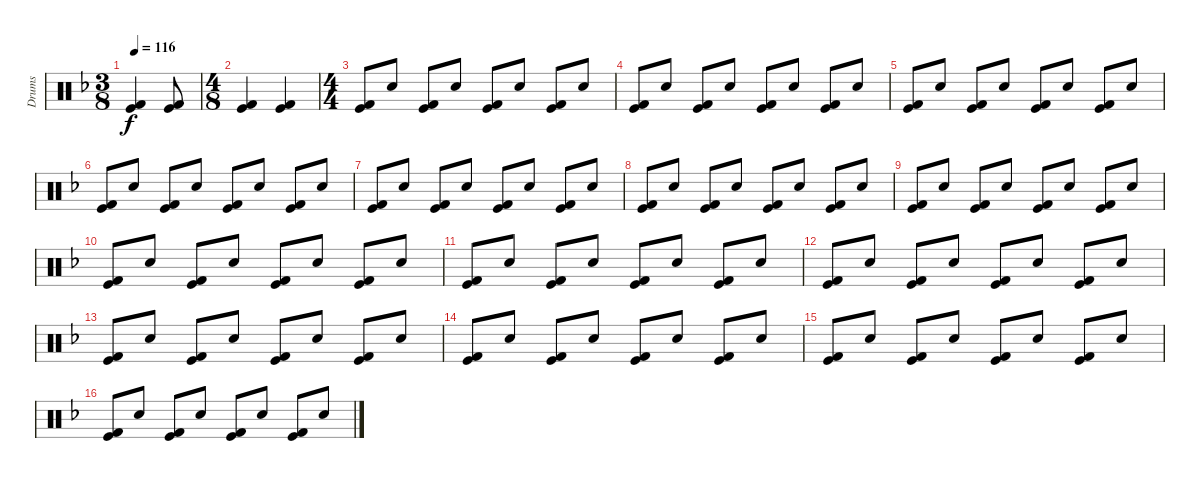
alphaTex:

\track ("Drums" "Drums") {instrument percussion}
\staff {score}
\articulation defaults
\ts (3 8)
\tempo 116
\clef neutral
\ks f
("Kick (hit)" "Kick (hit) 2").4{dy f} ("Kick (hit)" "Kick (hit) 2").8 |
\ts (4 8)
("Kick (hit)" "Kick (hit) 2").4 ("Kick (hit)" "Kick (hit) 2").4 |
\ts (4 4)
("Kick (hit)" "Kick (hit) 2").8 "Snare (hit) 2".8 ("Kick (hit)" "Kick (hit) 2").8 "Snare (hit) 2".8 ("Kick (hit)" "Kick (hit) 2").8 "Snare (hit) 2".8 ("Kick (hit)" "Kick (hit) 2").8 "Snare (hit) 2".8 |
("Kick (hit)" "Kick (hit) 2").8 "Snare (hit) 2".8 ("Kick (hit)" "Kick (hit) 2").8 "Snare (hit) 2".8 ("Kick (hit)" "Kick (hit) 2").8 "Snare (hit) 2".8 ("Kick (hit)" "Kick (hit) 2").8 "Snare (hit) 2".8 |
("Kick (hit)" "Kick (hit) 2").8 "Snare (hit) 2".8 ("Kick (hit)" "Kick (hit) 2").8 "Snare (hit) 2".8 ("Kick (hit)" "Kick (hit) 2").8 "Snare (hit) 2".8 ("Kick (hit)" "Kick (hit) 2").8 "Snare (hit) 2".8 |
("Kick (hit)" "Kick (hit) 2").8 "Snare (hit) 2".8 ("Kick (hit)" "Kick (hit) 2").8 "Snare (hit) 2".8 ("Kick (hit)" "Kick (hit) 2").8 "Snare (hit) 2".8 ("Kick (hit)" "Kick (hit) 2").8 "Snare (hit) 2".8 |
("Kick (hit)" "Kick (hit) 2").8 "Snare (hit) 2".8 ("Kick (hit)" "Kick (hit) 2").8 "Snare (hit) 2".8 ("Kick (hit)" "Kick (hit) 2").8 "Snare (hit) 2".8 ("Kick (hit)" "Kick (hit) 2").8 "Snare (hit) 2".8 |
("Kick (hit)" "Kick (hit) 2").8 "Snare (hit) 2".8 ("Kick (hit)" "Kick (hit) 2").8 "Snare (hit) 2".8 ("Kick (hit)" "Kick (hit) 2").8 "Snare (hit) 2".8 ("Kick (hit)" "Kick (hit) 2").8 "Snare (hit) 2".8 |
("Kick (hit)" "Kick (hit) 2").8 "Snare (hit) 2".8 ("Kick (hit)" "Kick (hit) 2").8 "Snare (hit) 2".8 ("Kick (hit)" "Kick (hit) 2").8 "Snare (hit) 2".8 ("Kick (hit)" "Kick (hit) 2").8 "Snare (hit) 2".8 |
("Kick (hit)" "Kick (hit) 2").8 "Snare (hit) 2".8 ("Kick (hit)" "Kick (hit) 2").8 "Snare (hit) 2".8 ("Kick (hit)" "Kick (hit) 2").8 "Snare (hit) 2".8 ("Kick (hit)" "Kick (hit) 2").8 "Snare (hit) 2".8 |
("Kick (hit)" "Kick (hit) 2").8 "Snare (hit) 2".8 ("Kick (hit)" "Kick (hit) 2").8 "Snare (hit) 2".8 ("Kick (hit)" "Kick (hit) 2").8 "Snare (hit) 2".8 ("Kick (hit)" "Kick (hit) 2").8 "Snare (hit) 2".8 |
("Kick (hit)" "Kick (hit) 2").8 "Snare (hit) 2".8 ("Kick (hit)" "Kick (hit) 2").8 "Snare (hit) 2".8 ("Kick (hit)" "Kick (hit) 2").8 "Snare (hit) 2".8 ("Kick (hit)" "Kick (hit) 2").8 "Snare (hit) 2".8 |
("Kick (hit)" "Kick (hit) 2").8 "Snare (hit) 2".8 ("Kick (hit)" "Kick (hit) 2").8 "Snare (hit) 2".8 ("Kick (hit)" "Kick (hit) 2").8 "Snare (hit) 2".8 ("Kick (hit)" "Kick (hit) 2").8 "Snare (hit) 2".8 |
("Kick (hit)" "Kick (hit) 2").8 "Snare (hit) 2".8 ("Kick (hit)" "Kick (hit) 2").8 "Snare (hit) 2".8 ("Kick (hit)" "Kick (hit) 2").8 "Snare (hit) 2".8 ("Kick (hit)" "Kick (hit) 2").8 "Snare (hit) 2".8 |
("Kick (hit)" "Kick (hit) 2").8 "Snare (hit) 2".8 ("Kick (hit)" "Kick (hit) 2").8 "Snare (hit) 2".8 ("Kick (hit)" "Kick (hit) 2").8 "Snare (hit) 2".8 ("Kick (hit)" "Kick (hit) 2").8 "Snare (hit) 2".8 |
("Kick (hit)" "Kick (hit) 2").8 "Snare (hit) 2".8 ("Kick (hit)" "Kick (hit) 2").8 "Snare (hit) 2".8 ("Kick (hit)" "Kick (hit) 2").8 "Snare (hit) 2".8 ("Kick (hit)" "Kick (hit) 2").8 "Snare (hit) 2".8
